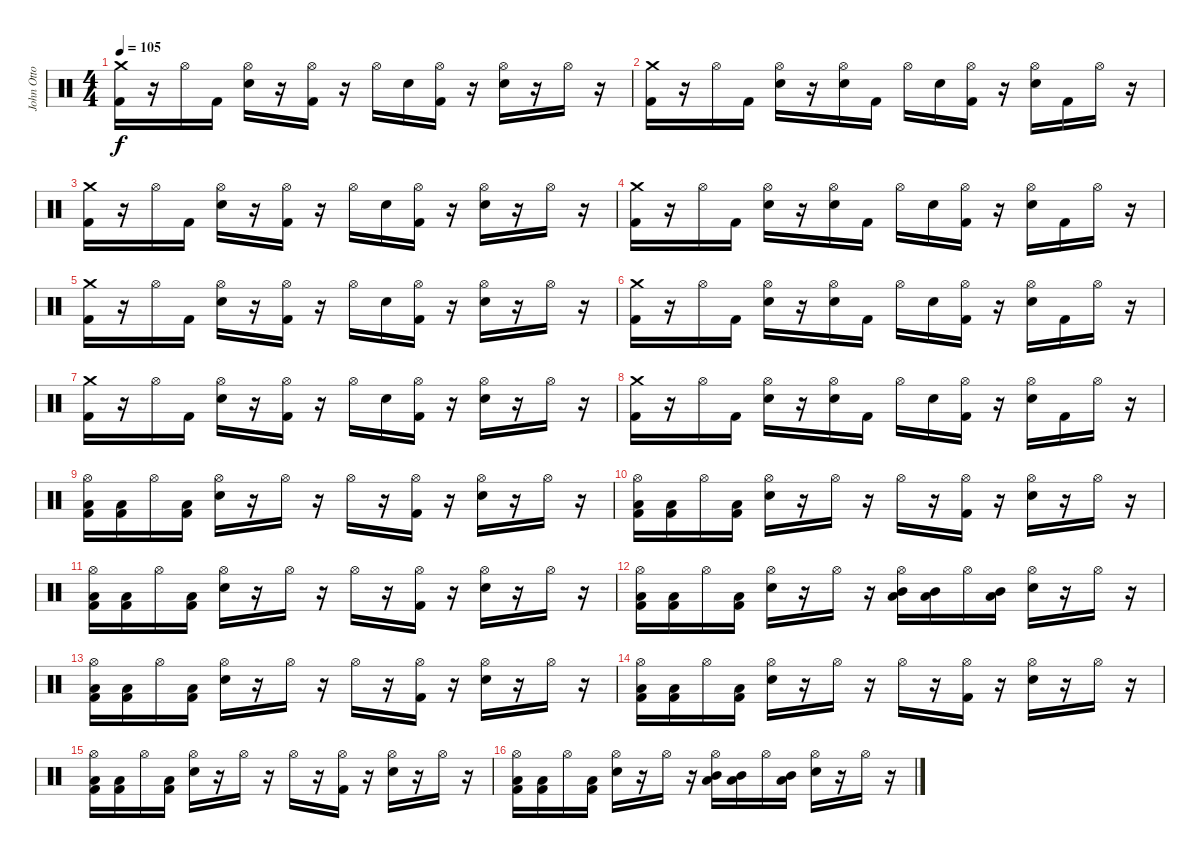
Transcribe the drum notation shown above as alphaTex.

\track ("John Otto - Drums" "John Otto ") {instrument percussion}
\staff {score}
\articulation defaults
\ts (4 4)
\tempo 105
\clef neutral
\ks c
("Crash medium (hit)" "Kick (hit) 2").16{dy f} r.16 "Hi-Hat (open)".16 "Kick (hit) 2".16 ("Hi-Hat (open)" "Electric Snare (hit)").16 r.16 ("Hi-Hat (open)" "Kick (hit) 2").16 r.16 "Hi-Hat (open)".16 "Electric Snare (hit)".16 ("Hi-Hat (open)" "Kick (hit) 2").16 r.16 ("Hi-Hat (open)" "Electric Snare (hit)").16 r.16 "Hi-Hat (open)".16 r.16 |
("Crash medium (hit)" "Kick (hit) 2").16 r.16 "Hi-Hat (open)".16 "Kick (hit) 2".16 ("Hi-Hat (open)" "Electric Snare (hit)").16 r.16 ("Hi-Hat (open)" "Electric Snare (hit)").16 "Kick (hit) 2".16 "Hi-Hat (open)".16 "Electric Snare (hit)".16 ("Hi-Hat (open)" "Kick (hit) 2").16 r.16 ("Hi-Hat (open)" "Electric Snare (hit)").16 "Kick (hit) 2".16 "Hi-Hat (open)".16 r.16 |
("Crash medium (hit)" "Kick (hit) 2").16 r.16 "Hi-Hat (open)".16 "Kick (hit) 2".16 ("Hi-Hat (open)" "Electric Snare (hit)").16 r.16 ("Hi-Hat (open)" "Kick (hit) 2").16 r.16 "Hi-Hat (open)".16 "Electric Snare (hit)".16 ("Hi-Hat (open)" "Kick (hit) 2").16 r.16 ("Hi-Hat (open)" "Electric Snare (hit)").16 r.16 "Hi-Hat (open)".16 r.16 |
("Crash medium (hit)" "Kick (hit) 2").16 r.16 "Hi-Hat (open)".16 "Kick (hit) 2".16 ("Hi-Hat (open)" "Electric Snare (hit)").16 r.16 ("Hi-Hat (open)" "Electric Snare (hit)").16 "Kick (hit) 2".16 "Hi-Hat (open)".16 "Electric Snare (hit)".16 ("Hi-Hat (open)" "Kick (hit) 2").16 r.16 ("Hi-Hat (open)" "Electric Snare (hit)").16 "Kick (hit) 2".16 "Hi-Hat (open)".16 r.16 |
("Crash medium (hit)" "Kick (hit) 2").16 r.16 "Hi-Hat (open)".16 "Kick (hit) 2".16 ("Hi-Hat (open)" "Electric Snare (hit)").16 r.16 ("Hi-Hat (open)" "Kick (hit) 2").16 r.16 "Hi-Hat (open)".16 "Electric Snare (hit)".16 ("Hi-Hat (open)" "Kick (hit) 2").16 r.16 ("Hi-Hat (open)" "Electric Snare (hit)").16 r.16 "Hi-Hat (open)".16 r.16 |
("Crash medium (hit)" "Kick (hit) 2").16 r.16 "Hi-Hat (open)".16 "Kick (hit) 2".16 ("Hi-Hat (open)" "Electric Snare (hit)").16 r.16 ("Hi-Hat (open)" "Electric Snare (hit)").16 "Kick (hit) 2".16 "Hi-Hat (open)".16 "Electric Snare (hit)".16 ("Hi-Hat (open)" "Kick (hit) 2").16 r.16 ("Hi-Hat (open)" "Electric Snare (hit)").16 "Kick (hit) 2".16 "Hi-Hat (open)".16 r.16 |
("Crash medium (hit)" "Kick (hit) 2").16 r.16 "Hi-Hat (open)".16 "Kick (hit) 2".16 ("Hi-Hat (open)" "Electric Snare (hit)").16 r.16 ("Hi-Hat (open)" "Kick (hit) 2").16 r.16 "Hi-Hat (open)".16 "Electric Snare (hit)".16 ("Hi-Hat (open)" "Kick (hit) 2").16 r.16 ("Hi-Hat (open)" "Electric Snare (hit)").16 r.16 "Hi-Hat (open)".16 r.16 |
("Crash medium (hit)" "Kick (hit) 2").16 r.16 "Hi-Hat (open)".16 "Kick (hit) 2".16 ("Hi-Hat (open)" "Electric Snare (hit)").16 r.16 ("Hi-Hat (open)" "Electric Snare (hit)").16 "Kick (hit) 2".16 "Hi-Hat (open)".16 "Electric Snare (hit)".16 ("Hi-Hat (open)" "Kick (hit) 2").16 r.16 ("Hi-Hat (open)" "Electric Snare (hit)").16 "Kick (hit) 2".16 "Hi-Hat (open)".16 r.16 |
("Hi-Hat (open)" "Low Tom (hit)" "Kick (hit) 2").16 ("Low Tom (hit)" "Kick (hit) 2").16 "Hi-Hat (open)".16 ("Low Tom (hit)" "Kick (hit) 2").16 ("Hi-Hat (open)" "Electric Snare (hit)").16 r.16 "Hi-Hat (open)".16 r.16 "Hi-Hat (open)".16 r.16 ("Hi-Hat (open)" "Kick (hit) 2").16 r.16 ("Hi-Hat (open)" "Electric Snare (hit)").16 r.16 "Hi-Hat (open)".16 r.16 |
("Hi-Hat (open)" "Low Tom (hit)" "Kick (hit) 2").16 ("Low Tom (hit)" "Kick (hit) 2").16 "Hi-Hat (open)".16 ("Low Tom (hit)" "Kick (hit) 2").16 ("Hi-Hat (open)" "Electric Snare (hit)").16 r.16 "Hi-Hat (open)".16 r.16 "Hi-Hat (open)".16 r.16 ("Hi-Hat (open)" "Kick (hit) 2").16 r.16 ("Hi-Hat (open)" "Electric Snare (hit)").16 r.16 "Hi-Hat (open)".16 r.16 |
("Hi-Hat (open)" "Low Tom (hit)" "Kick (hit) 2").16 ("Low Tom (hit)" "Kick (hit) 2").16 "Hi-Hat (open)".16 ("Low Tom (hit)" "Kick (hit) 2").16 ("Hi-Hat (open)" "Electric Snare (hit)").16 r.16 "Hi-Hat (open)".16 r.16 "Hi-Hat (open)".16 r.16 ("Hi-Hat (open)" "Kick (hit) 2").16 r.16 ("Hi-Hat (open)" "Electric Snare (hit)").16 r.16 "Hi-Hat (open)".16 r.16 |
("Hi-Hat (open)" "Low Tom (hit)" "Kick (hit) 2").16 ("Low Tom (hit)" "Kick (hit) 2").16 "Hi-Hat (open)".16 ("Low Tom (hit)" "Kick (hit) 2").16 ("Hi-Hat (open)" "Electric Snare (hit)").16 r.16 "Hi-Hat (open)".16 r.16 ("Hi-Hat (open)" "Mid Tom (hit)" "Low Tom (hit)").16 ("Mid Tom (hit)" "Low Tom (hit)").16 "Hi-Hat (open)".16 ("Mid Tom (hit)" "Low Tom (hit)").16 ("Hi-Hat (open)" "Electric Snare (hit)").16 r.16 "Hi-Hat (open)".16 r.16 |
("Hi-Hat (open)" "Low Tom (hit)" "Kick (hit) 2").16 ("Low Tom (hit)" "Kick (hit) 2").16 "Hi-Hat (open)".16 ("Low Tom (hit)" "Kick (hit) 2").16 ("Hi-Hat (open)" "Electric Snare (hit)").16 r.16 "Hi-Hat (open)".16 r.16 "Hi-Hat (open)".16 r.16 ("Hi-Hat (open)" "Kick (hit) 2").16 r.16 ("Hi-Hat (open)" "Electric Snare (hit)").16 r.16 "Hi-Hat (open)".16 r.16 |
("Hi-Hat (open)" "Low Tom (hit)" "Kick (hit) 2").16 ("Low Tom (hit)" "Kick (hit) 2").16 "Hi-Hat (open)".16 ("Low Tom (hit)" "Kick (hit) 2").16 ("Hi-Hat (open)" "Electric Snare (hit)").16 r.16 "Hi-Hat (open)".16 r.16 "Hi-Hat (open)".16 r.16 ("Hi-Hat (open)" "Kick (hit) 2").16 r.16 ("Hi-Hat (open)" "Electric Snare (hit)").16 r.16 "Hi-Hat (open)".16 r.16 |
("Hi-Hat (open)" "Low Tom (hit)" "Kick (hit) 2").16 ("Low Tom (hit)" "Kick (hit) 2").16 "Hi-Hat (open)".16 ("Low Tom (hit)" "Kick (hit) 2").16 ("Hi-Hat (open)" "Electric Snare (hit)").16 r.16 "Hi-Hat (open)".16 r.16 "Hi-Hat (open)".16 r.16 ("Hi-Hat (open)" "Kick (hit) 2").16 r.16 ("Hi-Hat (open)" "Electric Snare (hit)").16 r.16 "Hi-Hat (open)".16 r.16 |
("Hi-Hat (open)" "Low Tom (hit)" "Kick (hit) 2").16 ("Low Tom (hit)" "Kick (hit) 2").16 "Hi-Hat (open)".16 ("Low Tom (hit)" "Kick (hit) 2").16 ("Hi-Hat (open)" "Electric Snare (hit)").16 r.16 "Hi-Hat (open)".16 r.16 ("Hi-Hat (open)" "Mid Tom (hit)" "Low Tom (hit)").16 ("Mid Tom (hit)" "Low Tom (hit)").16 "Hi-Hat (open)".16 ("Mid Tom (hit)" "Low Tom (hit)").16 ("Hi-Hat (open)" "Electric Snare (hit)").16 r.16 "Hi-Hat (open)".16 r.16
